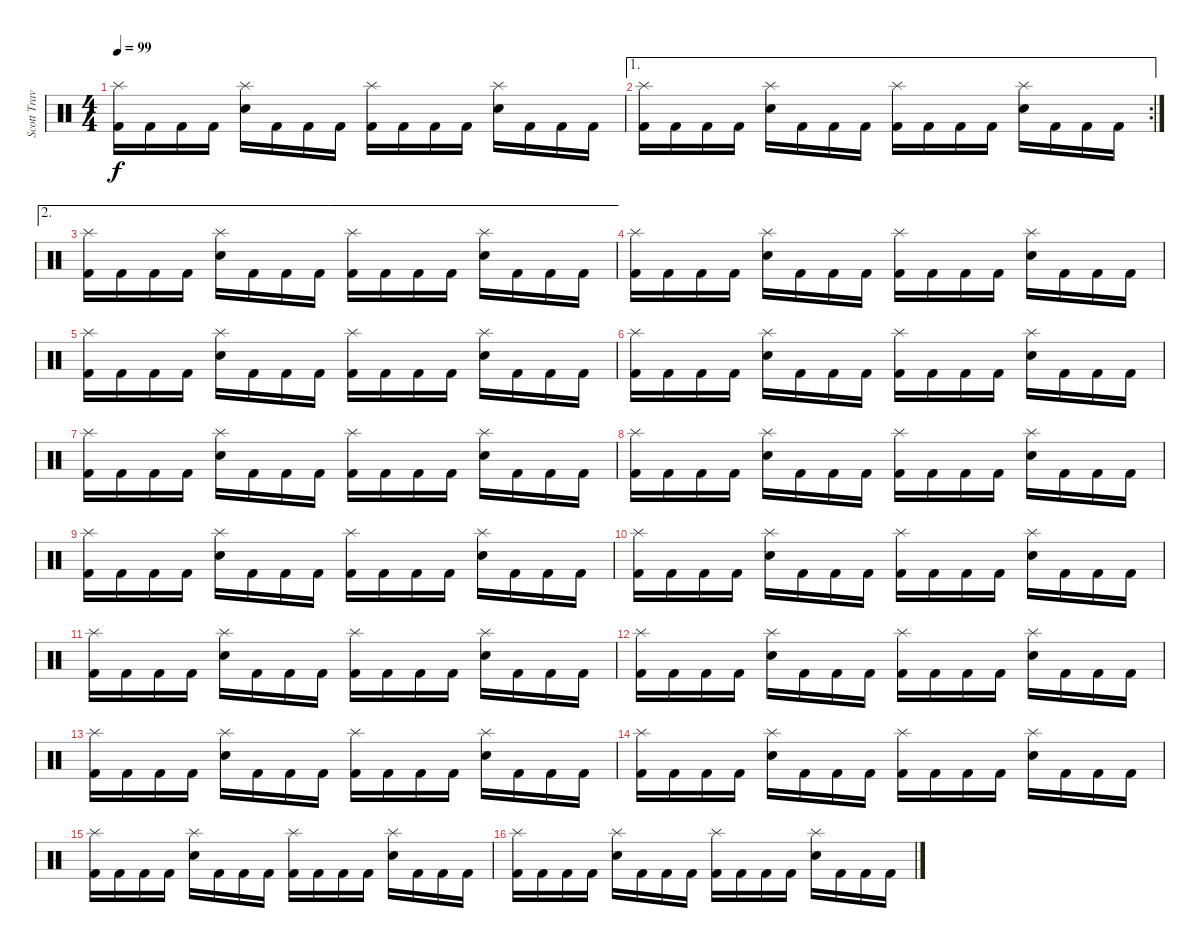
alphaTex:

\track ("Scott Travis" "Scott Trav") {instrument percussion}
\staff {score}
\articulation defaults
\ts (4 4)
\tempo 99
\clef neutral
\ks c
("Splash (hit)" "Kick (hit) 2").16{dy f} "Kick (hit) 2".16 "Kick (hit) 2".16 "Kick (hit) 2".16 ("Splash (hit)" "Electric Snare (hit)").16 "Kick (hit) 2".16 "Kick (hit) 2".16 "Kick (hit) 2".16 ("Splash (hit)" "Kick (hit) 2").16 "Kick (hit) 2".16 "Kick (hit) 2".16 "Kick (hit) 2".16 ("Splash (hit)" "Electric Snare (hit)").16 "Kick (hit) 2".16 "Kick (hit) 2".16 "Kick (hit) 2".16 |
\ae 1
\rc 2
("Splash (hit)" "Kick (hit) 2").16 "Kick (hit) 2".16 "Kick (hit) 2".16 "Kick (hit) 2".16 ("Splash (hit)" "Electric Snare (hit)").16 "Kick (hit) 2".16 "Kick (hit) 2".16 "Kick (hit) 2".16 ("Splash (hit)" "Kick (hit) 2").16 "Kick (hit) 2".16 "Kick (hit) 2".16 "Kick (hit) 2".16 ("Splash (hit)" "Electric Snare (hit)").16 "Kick (hit) 2".16 "Kick (hit) 2".16 "Kick (hit) 2".16 |
\ae 2
("Splash (hit)" "Kick (hit) 2").16 "Kick (hit) 2".16 "Kick (hit) 2".16 "Kick (hit) 2".16 ("Splash (hit)" "Electric Snare (hit)").16 "Kick (hit) 2".16 "Kick (hit) 2".16 "Kick (hit) 2".16 ("Splash (hit)" "Kick (hit) 2").16 "Kick (hit) 2".16 "Kick (hit) 2".16 "Kick (hit) 2".16 ("Splash (hit)" "Electric Snare (hit)").16 "Kick (hit) 2".16 "Kick (hit) 2".16 "Kick (hit) 2".16 |
("Splash (hit)" "Kick (hit) 2").16 "Kick (hit) 2".16 "Kick (hit) 2".16 "Kick (hit) 2".16 ("Splash (hit)" "Electric Snare (hit)").16 "Kick (hit) 2".16 "Kick (hit) 2".16 "Kick (hit) 2".16 ("Splash (hit)" "Kick (hit) 2").16 "Kick (hit) 2".16 "Kick (hit) 2".16 "Kick (hit) 2".16 ("Splash (hit)" "Electric Snare (hit)").16 "Kick (hit) 2".16 "Kick (hit) 2".16 "Kick (hit) 2".16 |
("Splash (hit)" "Kick (hit) 2").16 "Kick (hit) 2".16 "Kick (hit) 2".16 "Kick (hit) 2".16 ("Splash (hit)" "Electric Snare (hit)").16 "Kick (hit) 2".16 "Kick (hit) 2".16 "Kick (hit) 2".16 ("Splash (hit)" "Kick (hit) 2").16 "Kick (hit) 2".16 "Kick (hit) 2".16 "Kick (hit) 2".16 ("Splash (hit)" "Electric Snare (hit)").16 "Kick (hit) 2".16 "Kick (hit) 2".16 "Kick (hit) 2".16 |
("Splash (hit)" "Kick (hit) 2").16 "Kick (hit) 2".16 "Kick (hit) 2".16 "Kick (hit) 2".16 ("Splash (hit)" "Electric Snare (hit)").16 "Kick (hit) 2".16 "Kick (hit) 2".16 "Kick (hit) 2".16 ("Splash (hit)" "Kick (hit) 2").16 "Kick (hit) 2".16 "Kick (hit) 2".16 "Kick (hit) 2".16 ("Splash (hit)" "Electric Snare (hit)").16 "Kick (hit) 2".16 "Kick (hit) 2".16 "Kick (hit) 2".16 |
("Splash (hit)" "Kick (hit) 2").16 "Kick (hit) 2".16 "Kick (hit) 2".16 "Kick (hit) 2".16 ("Splash (hit)" "Electric Snare (hit)").16 "Kick (hit) 2".16 "Kick (hit) 2".16 "Kick (hit) 2".16 ("Splash (hit)" "Kick (hit) 2").16 "Kick (hit) 2".16 "Kick (hit) 2".16 "Kick (hit) 2".16 ("Splash (hit)" "Electric Snare (hit)").16 "Kick (hit) 2".16 "Kick (hit) 2".16 "Kick (hit) 2".16 |
("Splash (hit)" "Kick (hit) 2").16 "Kick (hit) 2".16 "Kick (hit) 2".16 "Kick (hit) 2".16 ("Splash (hit)" "Electric Snare (hit)").16 "Kick (hit) 2".16 "Kick (hit) 2".16 "Kick (hit) 2".16 ("Splash (hit)" "Kick (hit) 2").16 "Kick (hit) 2".16 "Kick (hit) 2".16 "Kick (hit) 2".16 ("Splash (hit)" "Electric Snare (hit)").16 "Kick (hit) 2".16 "Kick (hit) 2".16 "Kick (hit) 2".16 |
("Splash (hit)" "Kick (hit) 2").16 "Kick (hit) 2".16 "Kick (hit) 2".16 "Kick (hit) 2".16 ("Splash (hit)" "Electric Snare (hit)").16 "Kick (hit) 2".16 "Kick (hit) 2".16 "Kick (hit) 2".16 ("Splash (hit)" "Kick (hit) 2").16 "Kick (hit) 2".16 "Kick (hit) 2".16 "Kick (hit) 2".16 ("Splash (hit)" "Electric Snare (hit)").16 "Kick (hit) 2".16 "Kick (hit) 2".16 "Kick (hit) 2".16 |
("Splash (hit)" "Kick (hit) 2").16 "Kick (hit) 2".16 "Kick (hit) 2".16 "Kick (hit) 2".16 ("Splash (hit)" "Electric Snare (hit)").16 "Kick (hit) 2".16 "Kick (hit) 2".16 "Kick (hit) 2".16 ("Splash (hit)" "Kick (hit) 2").16 "Kick (hit) 2".16 "Kick (hit) 2".16 "Kick (hit) 2".16 ("Splash (hit)" "Electric Snare (hit)").16 "Kick (hit) 2".16 "Kick (hit) 2".16 "Kick (hit) 2".16 |
("Splash (hit)" "Kick (hit) 2").16 "Kick (hit) 2".16 "Kick (hit) 2".16 "Kick (hit) 2".16 ("Splash (hit)" "Electric Snare (hit)").16 "Kick (hit) 2".16 "Kick (hit) 2".16 "Kick (hit) 2".16 ("Splash (hit)" "Kick (hit) 2").16 "Kick (hit) 2".16 "Kick (hit) 2".16 "Kick (hit) 2".16 ("Splash (hit)" "Electric Snare (hit)").16 "Kick (hit) 2".16 "Kick (hit) 2".16 "Kick (hit) 2".16 |
("Splash (hit)" "Kick (hit) 2").16 "Kick (hit) 2".16 "Kick (hit) 2".16 "Kick (hit) 2".16 ("Splash (hit)" "Electric Snare (hit)").16 "Kick (hit) 2".16 "Kick (hit) 2".16 "Kick (hit) 2".16 ("Splash (hit)" "Kick (hit) 2").16 "Kick (hit) 2".16 "Kick (hit) 2".16 "Kick (hit) 2".16 ("Splash (hit)" "Electric Snare (hit)").16 "Kick (hit) 2".16 "Kick (hit) 2".16 "Kick (hit) 2".16 |
("Splash (hit)" "Kick (hit) 2").16 "Kick (hit) 2".16 "Kick (hit) 2".16 "Kick (hit) 2".16 ("Splash (hit)" "Electric Snare (hit)").16 "Kick (hit) 2".16 "Kick (hit) 2".16 "Kick (hit) 2".16 ("Splash (hit)" "Kick (hit) 2").16 "Kick (hit) 2".16 "Kick (hit) 2".16 "Kick (hit) 2".16 ("Splash (hit)" "Electric Snare (hit)").16 "Kick (hit) 2".16 "Kick (hit) 2".16 "Kick (hit) 2".16 |
("Splash (hit)" "Kick (hit) 2").16 "Kick (hit) 2".16 "Kick (hit) 2".16 "Kick (hit) 2".16 ("Splash (hit)" "Electric Snare (hit)").16 "Kick (hit) 2".16 "Kick (hit) 2".16 "Kick (hit) 2".16 ("Splash (hit)" "Kick (hit) 2").16 "Kick (hit) 2".16 "Kick (hit) 2".16 "Kick (hit) 2".16 ("Splash (hit)" "Electric Snare (hit)").16 "Kick (hit) 2".16 "Kick (hit) 2".16 "Kick (hit) 2".16 |
("Splash (hit)" "Kick (hit) 2").16 "Kick (hit) 2".16 "Kick (hit) 2".16 "Kick (hit) 2".16 ("Splash (hit)" "Electric Snare (hit)").16 "Kick (hit) 2".16 "Kick (hit) 2".16 "Kick (hit) 2".16 ("Splash (hit)" "Kick (hit) 2").16 "Kick (hit) 2".16 "Kick (hit) 2".16 "Kick (hit) 2".16 ("Splash (hit)" "Electric Snare (hit)").16 "Kick (hit) 2".16 "Kick (hit) 2".16 "Kick (hit) 2".16 |
("Splash (hit)" "Kick (hit) 2").16 "Kick (hit) 2".16 "Kick (hit) 2".16 "Kick (hit) 2".16 ("Splash (hit)" "Electric Snare (hit)").16 "Kick (hit) 2".16 "Kick (hit) 2".16 "Kick (hit) 2".16 ("Splash (hit)" "Kick (hit) 2").16 "Kick (hit) 2".16 "Kick (hit) 2".16 "Kick (hit) 2".16 ("Splash (hit)" "Electric Snare (hit)").16 "Kick (hit) 2".16 "Kick (hit) 2".16 "Kick (hit) 2".16
